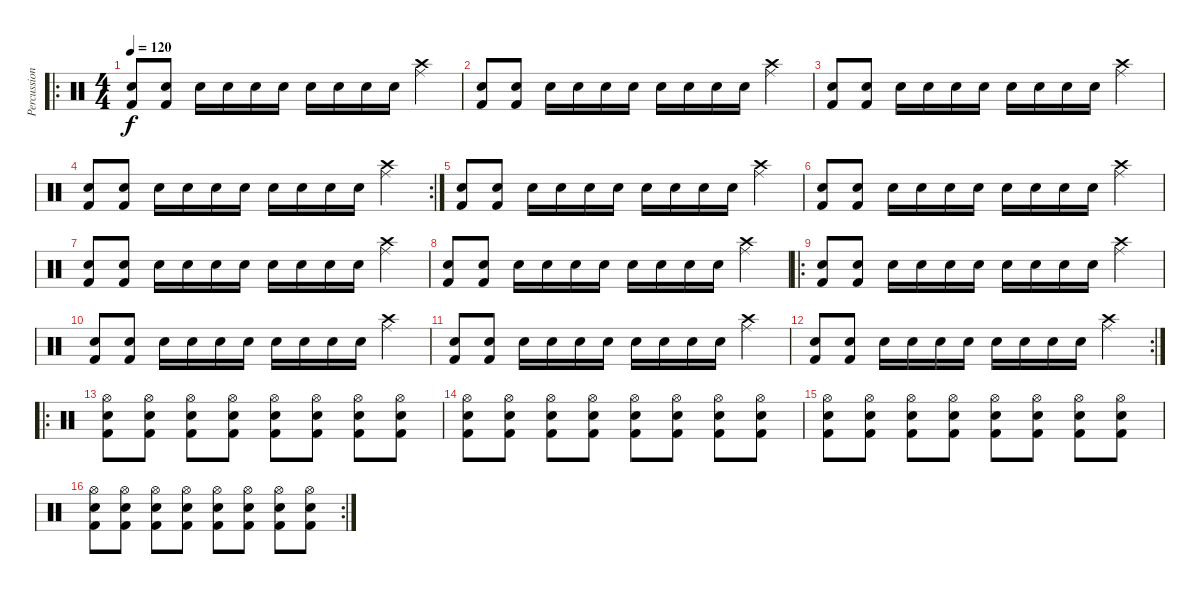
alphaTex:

\track ("Percussion" "Percussion") {instrument percussion}
\staff {score}
\articulation defaults
\ro
\ts (4 4)
\tempo 120
\clef neutral
\ks c
("Electric Snare (hit)" "Kick (hit) 2").8{dy f} ("Electric Snare (hit)" "Kick (hit) 2").8 "Electric Snare (hit)".16 "Electric Snare (hit)".16 "Electric Snare (hit)".16 "Electric Snare (hit)".16 "Electric Snare (hit)".16 "Electric Snare (hit)".16 "Electric Snare (hit)".16 "Electric Snare (hit)".16 ("Ride (middle)" "Crash high (hit)").4 |
("Electric Snare (hit)" "Kick (hit) 2").8 ("Electric Snare (hit)" "Kick (hit) 2").8 "Electric Snare (hit)".16 "Electric Snare (hit)".16 "Electric Snare (hit)".16 "Electric Snare (hit)".16 "Electric Snare (hit)".16 "Electric Snare (hit)".16 "Electric Snare (hit)".16 "Electric Snare (hit)".16 ("Ride (middle)" "Crash high (hit)").4 |
("Electric Snare (hit)" "Kick (hit) 2").8 ("Electric Snare (hit)" "Kick (hit) 2").8 "Electric Snare (hit)".16 "Electric Snare (hit)".16 "Electric Snare (hit)".16 "Electric Snare (hit)".16 "Electric Snare (hit)".16 "Electric Snare (hit)".16 "Electric Snare (hit)".16 "Electric Snare (hit)".16 ("Ride (middle)" "Crash high (hit)").4 |
\rc 2
("Electric Snare (hit)" "Kick (hit) 2").8 ("Electric Snare (hit)" "Kick (hit) 2").8 "Electric Snare (hit)".16 "Electric Snare (hit)".16 "Electric Snare (hit)".16 "Electric Snare (hit)".16 "Electric Snare (hit)".16 "Electric Snare (hit)".16 "Electric Snare (hit)".16 "Electric Snare (hit)".16 ("Ride (middle)" "Crash high (hit)").4 |
("Electric Snare (hit)" "Kick (hit) 2").8 ("Electric Snare (hit)" "Kick (hit) 2").8 "Electric Snare (hit)".16 "Electric Snare (hit)".16 "Electric Snare (hit)".16 "Electric Snare (hit)".16 "Electric Snare (hit)".16 "Electric Snare (hit)".16 "Electric Snare (hit)".16 "Electric Snare (hit)".16 ("Ride (middle)" "Crash high (hit)").4 |
("Electric Snare (hit)" "Kick (hit) 2").8 ("Electric Snare (hit)" "Kick (hit) 2").8 "Electric Snare (hit)".16 "Electric Snare (hit)".16 "Electric Snare (hit)".16 "Electric Snare (hit)".16 "Electric Snare (hit)".16 "Electric Snare (hit)".16 "Electric Snare (hit)".16 "Electric Snare (hit)".16 ("Ride (middle)" "Crash high (hit)").4 |
("Electric Snare (hit)" "Kick (hit) 2").8 ("Electric Snare (hit)" "Kick (hit) 2").8 "Electric Snare (hit)".16 "Electric Snare (hit)".16 "Electric Snare (hit)".16 "Electric Snare (hit)".16 "Electric Snare (hit)".16 "Electric Snare (hit)".16 "Electric Snare (hit)".16 "Electric Snare (hit)".16 ("Ride (middle)" "Crash high (hit)").4 |
("Electric Snare (hit)" "Kick (hit) 2").8 ("Electric Snare (hit)" "Kick (hit) 2").8 "Electric Snare (hit)".16 "Electric Snare (hit)".16 "Electric Snare (hit)".16 "Electric Snare (hit)".16 "Electric Snare (hit)".16 "Electric Snare (hit)".16 "Electric Snare (hit)".16 "Electric Snare (hit)".16 ("Ride (middle)" "Crash high (hit)").4 |
\ro
("Electric Snare (hit)" "Kick (hit) 2").8 ("Electric Snare (hit)" "Kick (hit) 2").8 "Electric Snare (hit)".16 "Electric Snare (hit)".16 "Electric Snare (hit)".16 "Electric Snare (hit)".16 "Electric Snare (hit)".16 "Electric Snare (hit)".16 "Electric Snare (hit)".16 "Electric Snare (hit)".16 ("Ride (middle)" "Crash high (hit)").4 |
("Electric Snare (hit)" "Kick (hit) 2").8 ("Electric Snare (hit)" "Kick (hit) 2").8 "Electric Snare (hit)".16 "Electric Snare (hit)".16 "Electric Snare (hit)".16 "Electric Snare (hit)".16 "Electric Snare (hit)".16 "Electric Snare (hit)".16 "Electric Snare (hit)".16 "Electric Snare (hit)".16 ("Ride (middle)" "Crash high (hit)").4 |
("Electric Snare (hit)" "Kick (hit) 2").8 ("Electric Snare (hit)" "Kick (hit) 2").8 "Electric Snare (hit)".16 "Electric Snare (hit)".16 "Electric Snare (hit)".16 "Electric Snare (hit)".16 "Electric Snare (hit)".16 "Electric Snare (hit)".16 "Electric Snare (hit)".16 "Electric Snare (hit)".16 ("Ride (middle)" "Crash high (hit)").4 |
\rc 2
("Electric Snare (hit)" "Kick (hit) 2").8 ("Electric Snare (hit)" "Kick (hit) 2").8 "Electric Snare (hit)".16 "Electric Snare (hit)".16 "Electric Snare (hit)".16 "Electric Snare (hit)".16 "Electric Snare (hit)".16 "Electric Snare (hit)".16 "Electric Snare (hit)".16 "Electric Snare (hit)".16 ("Ride (middle)" "Crash high (hit)").4 |
\ro
("Hi-Hat (open)" "Electric Snare (hit)" "Kick (hit) 2").8 ("Hi-Hat (open)" "Electric Snare (hit)" "Kick (hit) 2").8 ("Hi-Hat (open)" "Electric Snare (hit)" "Kick (hit) 2").8 ("Hi-Hat (open)" "Electric Snare (hit)" "Kick (hit) 2").8 ("Hi-Hat (open)" "Electric Snare (hit)" "Kick (hit) 2").8 ("Hi-Hat (open)" "Electric Snare (hit)" "Kick (hit) 2").8 ("Hi-Hat (open)" "Electric Snare (hit)" "Kick (hit) 2").8 ("Hi-Hat (open)" "Electric Snare (hit)" "Kick (hit) 2").8 |
("Hi-Hat (open)" "Electric Snare (hit)" "Kick (hit) 2").8 ("Hi-Hat (open)" "Electric Snare (hit)" "Kick (hit) 2").8 ("Hi-Hat (open)" "Electric Snare (hit)" "Kick (hit) 2").8 ("Hi-Hat (open)" "Electric Snare (hit)" "Kick (hit) 2").8 ("Hi-Hat (open)" "Electric Snare (hit)" "Kick (hit) 2").8 ("Hi-Hat (open)" "Electric Snare (hit)" "Kick (hit) 2").8 ("Hi-Hat (open)" "Electric Snare (hit)" "Kick (hit) 2").8 ("Hi-Hat (open)" "Electric Snare (hit)" "Kick (hit) 2").8 |
("Hi-Hat (open)" "Electric Snare (hit)" "Kick (hit) 2").8 ("Hi-Hat (open)" "Electric Snare (hit)" "Kick (hit) 2").8 ("Hi-Hat (open)" "Electric Snare (hit)" "Kick (hit) 2").8 ("Hi-Hat (open)" "Electric Snare (hit)" "Kick (hit) 2").8 ("Hi-Hat (open)" "Electric Snare (hit)" "Kick (hit) 2").8 ("Hi-Hat (open)" "Electric Snare (hit)" "Kick (hit) 2").8 ("Hi-Hat (open)" "Electric Snare (hit)" "Kick (hit) 2").8 ("Hi-Hat (open)" "Electric Snare (hit)" "Kick (hit) 2").8 |
\rc 2
("Hi-Hat (open)" "Electric Snare (hit)" "Kick (hit) 2").8 ("Hi-Hat (open)" "Electric Snare (hit)" "Kick (hit) 2").8 ("Hi-Hat (open)" "Electric Snare (hit)" "Kick (hit) 2").8 ("Hi-Hat (open)" "Electric Snare (hit)" "Kick (hit) 2").8 ("Hi-Hat (open)" "Electric Snare (hit)" "Kick (hit) 2").8 ("Hi-Hat (open)" "Electric Snare (hit)" "Kick (hit) 2").8 ("Hi-Hat (open)" "Electric Snare (hit)" "Kick (hit) 2").8 ("Hi-Hat (open)" "Electric Snare (hit)" "Kick (hit) 2").8
